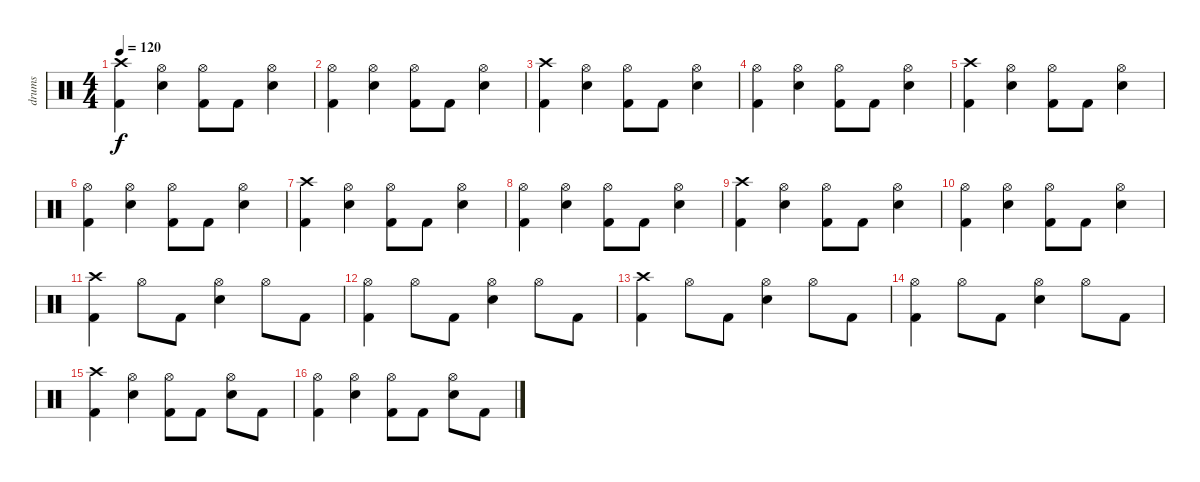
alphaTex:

\track ("drums" "drums") {instrument percussion}
\staff {score}
\articulation defaults
\ts (4 4)
\tempo 120
\clef neutral
\ks c
("Crash high (hit)" "Kick (hit) 2").4{dy f} ("Hi-Hat (open)" "Snare (hit) 2").4 ("Hi-Hat (open)" "Kick (hit) 2").8 "Kick (hit) 2".8 ("Hi-Hat (open)" "Snare (hit) 2").4 |
("Hi-Hat (open)" "Kick (hit) 2").4 ("Hi-Hat (open)" "Snare (hit) 2").4 ("Hi-Hat (open)" "Kick (hit) 2").8 "Kick (hit) 2".8 ("Hi-Hat (open)" "Snare (hit) 2").4 |
("Crash high (hit)" "Kick (hit) 2").4 ("Hi-Hat (open)" "Snare (hit) 2").4 ("Hi-Hat (open)" "Kick (hit) 2").8 "Kick (hit) 2".8 ("Hi-Hat (open)" "Snare (hit) 2").4 |
("Hi-Hat (open)" "Kick (hit) 2").4 ("Hi-Hat (open)" "Snare (hit) 2").4 ("Hi-Hat (open)" "Kick (hit) 2").8 "Kick (hit) 2".8 ("Hi-Hat (open)" "Snare (hit) 2").4 |
("Crash high (hit)" "Kick (hit) 2").4 ("Hi-Hat (open)" "Snare (hit) 2").4 ("Hi-Hat (open)" "Kick (hit) 2").8 "Kick (hit) 2".8 ("Hi-Hat (open)" "Snare (hit) 2").4 |
("Hi-Hat (open)" "Kick (hit) 2").4 ("Hi-Hat (open)" "Snare (hit) 2").4 ("Hi-Hat (open)" "Kick (hit) 2").8 "Kick (hit) 2".8 ("Hi-Hat (open)" "Snare (hit) 2").4 |
("Crash high (hit)" "Kick (hit) 2").4 ("Hi-Hat (open)" "Snare (hit) 2").4 ("Hi-Hat (open)" "Kick (hit) 2").8 "Kick (hit) 2".8 ("Hi-Hat (open)" "Snare (hit) 2").4 |
("Hi-Hat (open)" "Kick (hit) 2").4 ("Hi-Hat (open)" "Snare (hit) 2").4 ("Hi-Hat (open)" "Kick (hit) 2").8 "Kick (hit) 2".8 ("Hi-Hat (open)" "Snare (hit) 2").4 |
("Crash high (hit)" "Kick (hit) 2").4 ("Hi-Hat (open)" "Snare (hit) 2").4 ("Hi-Hat (open)" "Kick (hit) 2").8 "Kick (hit) 2".8 ("Hi-Hat (open)" "Snare (hit) 2").4 |
("Hi-Hat (open)" "Kick (hit) 2").4 ("Hi-Hat (open)" "Snare (hit) 2").4 ("Hi-Hat (open)" "Kick (hit) 2").8 "Kick (hit) 2".8 ("Hi-Hat (open)" "Snare (hit) 2").4 |
("Crash high (hit)" "Kick (hit) 2").4 "Hi-Hat (open)".8 "Kick (hit) 2".8 ("Hi-Hat (open)" "Snare (hit) 2").4 "Hi-Hat (open)".8 "Kick (hit) 2".8 |
("Hi-Hat (open)" "Kick (hit) 2").4 "Hi-Hat (open)".8 "Kick (hit) 2".8 ("Hi-Hat (open)" "Snare (hit) 2").4 "Hi-Hat (open)".8 "Kick (hit) 2".8 |
("Crash high (hit)" "Kick (hit) 2").4 "Hi-Hat (open)".8 "Kick (hit) 2".8 ("Hi-Hat (open)" "Snare (hit) 2").4 "Hi-Hat (open)".8 "Kick (hit) 2".8 |
("Hi-Hat (open)" "Kick (hit) 2").4 "Hi-Hat (open)".8 "Kick (hit) 2".8 ("Hi-Hat (open)" "Snare (hit) 2").4 "Hi-Hat (open)".8 "Kick (hit) 2".8 |
("Crash high (hit)" "Kick (hit) 2").4 ("Hi-Hat (open)" "Snare (hit) 2").4 ("Hi-Hat (open)" "Kick (hit) 2").8 "Kick (hit) 2".8 ("Hi-Hat (open)" "Snare (hit) 2").8 "Kick (hit) 2".8 |
("Hi-Hat (open)" "Kick (hit) 2").4 ("Hi-Hat (open)" "Snare (hit) 2").4 ("Hi-Hat (open)" "Kick (hit) 2").8 "Kick (hit) 2".8 ("Hi-Hat (open)" "Snare (hit) 2").8 "Kick (hit) 2".8
